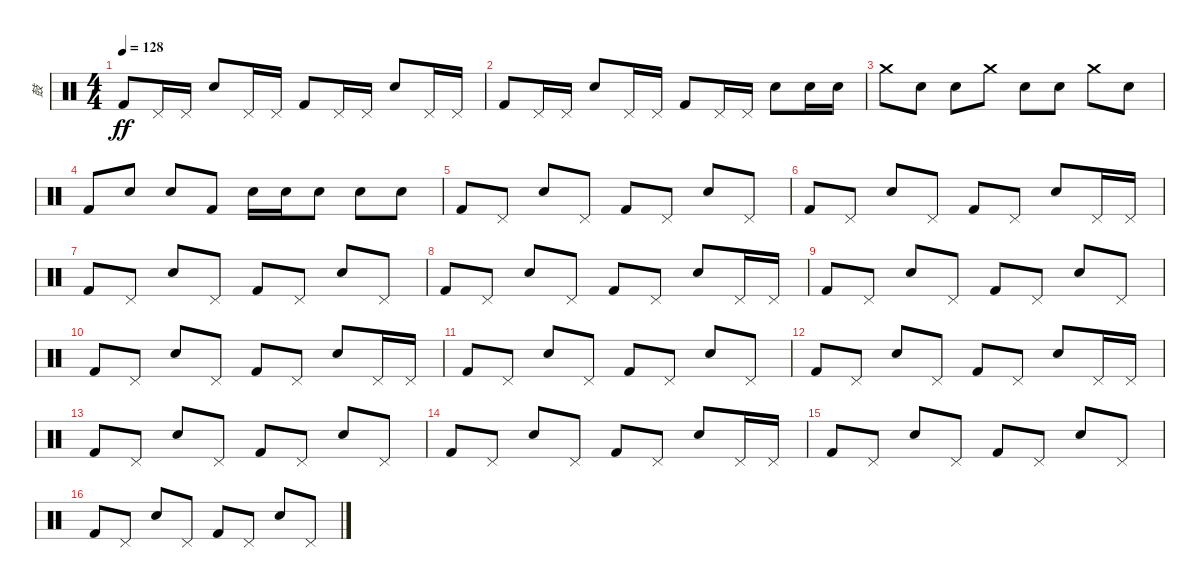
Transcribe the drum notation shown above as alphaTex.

\track ("鼓" "鼓") {instrument percussion}
\staff {score}
\articulation defaults
\ts (4 4)
\tempo 128
\clef neutral
\ks c "Kick (hit) 2".8{dy ff} "Pedal Hi-Hat (hit)".16 "Pedal Hi-Hat (hit)".16 "Snare (hit) 2".8 "Pedal Hi-Hat (hit)".16 "Pedal Hi-Hat (hit)".16 "Kick (hit) 2".8 "Pedal Hi-Hat (hit)".16 "Pedal Hi-Hat (hit)".16 "Snare (hit) 2".8 "Pedal Hi-Hat (hit)".16 "Pedal Hi-Hat (hit)".16
|
"Kick (hit) 2".8 "Pedal Hi-Hat (hit)".16 "Pedal Hi-Hat (hit)".16 "Snare (hit) 2".8 "Pedal Hi-Hat (hit)".16 "Pedal Hi-Hat (hit)".16 "Kick (hit) 2".8 "Pedal Hi-Hat (hit)".16 "Pedal Hi-Hat (hit)".16 "Snare (hit) 2".8 "Snare (hit) 2".16 "Snare (hit) 2".16 |
"Crash medium (hit)".8 "Snare (hit) 2".8 "Snare (hit) 2".8 "Crash medium (hit)".8 "Snare (hit) 2".8 "Snare (hit) 2".8 "Crash medium (hit)".8 "Snare (hit) 2".8 |
"Kick (hit) 2".8 "Snare (hit) 2".8 "Snare (hit) 2".8 "Kick (hit) 2".8 "Snare (hit) 2".16 "Snare (hit) 2".16 "Snare (hit) 2".8 "Snare (hit) 2".8 "Snare (hit) 2".8 |
"Kick (hit) 2".8 "Pedal Hi-Hat (hit)".8 "Snare (hit) 2".8 "Pedal Hi-Hat (hit)".8 "Kick (hit) 2".8 "Pedal Hi-Hat (hit)".8 "Snare (hit) 2".8 "Pedal Hi-Hat (hit)".8 |
"Kick (hit) 2".8 "Pedal Hi-Hat (hit)".8 "Snare (hit) 2".8 "Pedal Hi-Hat (hit)".8 "Kick (hit) 2".8 "Pedal Hi-Hat (hit)".8 "Snare (hit) 2".8 "Pedal Hi-Hat (hit)".16 "Pedal Hi-Hat (hit)".16 |
"Kick (hit) 2".8 "Pedal Hi-Hat (hit)".8 "Snare (hit) 2".8 "Pedal Hi-Hat (hit)".8 "Kick (hit) 2".8 "Pedal Hi-Hat (hit)".8 "Snare (hit) 2".8 "Pedal Hi-Hat (hit)".8 |
"Kick (hit) 2".8 "Pedal Hi-Hat (hit)".8 "Snare (hit) 2".8 "Pedal Hi-Hat (hit)".8 "Kick (hit) 2".8 "Pedal Hi-Hat (hit)".8 "Snare (hit) 2".8 "Pedal Hi-Hat (hit)".16 "Pedal Hi-Hat (hit)".16 |
"Kick (hit) 2".8 "Pedal Hi-Hat (hit)".8 "Snare (hit) 2".8 "Pedal Hi-Hat (hit)".8 "Kick (hit) 2".8 "Pedal Hi-Hat (hit)".8 "Snare (hit) 2".8 "Pedal Hi-Hat (hit)".8 |
"Kick (hit) 2".8 "Pedal Hi-Hat (hit)".8 "Snare (hit) 2".8 "Pedal Hi-Hat (hit)".8 "Kick (hit) 2".8 "Pedal Hi-Hat (hit)".8 "Snare (hit) 2".8 "Pedal Hi-Hat (hit)".16 "Pedal Hi-Hat (hit)".16 |
"Kick (hit) 2".8 "Pedal Hi-Hat (hit)".8 "Snare (hit) 2".8 "Pedal Hi-Hat (hit)".8 "Kick (hit) 2".8 "Pedal Hi-Hat (hit)".8 "Snare (hit) 2".8 "Pedal Hi-Hat (hit)".8 |
"Kick (hit) 2".8 "Pedal Hi-Hat (hit)".8 "Snare (hit) 2".8 "Pedal Hi-Hat (hit)".8 "Kick (hit) 2".8 "Pedal Hi-Hat (hit)".8 "Snare (hit) 2".8 "Pedal Hi-Hat (hit)".16 "Pedal Hi-Hat (hit)".16 |
"Kick (hit) 2".8 "Pedal Hi-Hat (hit)".8 "Snare (hit) 2".8 "Pedal Hi-Hat (hit)".8 "Kick (hit) 2".8 "Pedal Hi-Hat (hit)".8 "Snare (hit) 2".8 "Pedal Hi-Hat (hit)".8 |
"Kick (hit) 2".8 "Pedal Hi-Hat (hit)".8 "Snare (hit) 2".8 "Pedal Hi-Hat (hit)".8 "Kick (hit) 2".8 "Pedal Hi-Hat (hit)".8 "Snare (hit) 2".8 "Pedal Hi-Hat (hit)".16 "Pedal Hi-Hat (hit)".16 |
"Kick (hit) 2".8 "Pedal Hi-Hat (hit)".8 "Snare (hit) 2".8 "Pedal Hi-Hat (hit)".8 "Kick (hit) 2".8 "Pedal Hi-Hat (hit)".8 "Snare (hit) 2".8 "Pedal Hi-Hat (hit)".8 |
"Kick (hit) 2".8 "Pedal Hi-Hat (hit)".8 "Snare (hit) 2".8 "Pedal Hi-Hat (hit)".8 "Kick (hit) 2".8 "Pedal Hi-Hat (hit)".8 "Snare (hit) 2".8 "Pedal Hi-Hat (hit)".8
